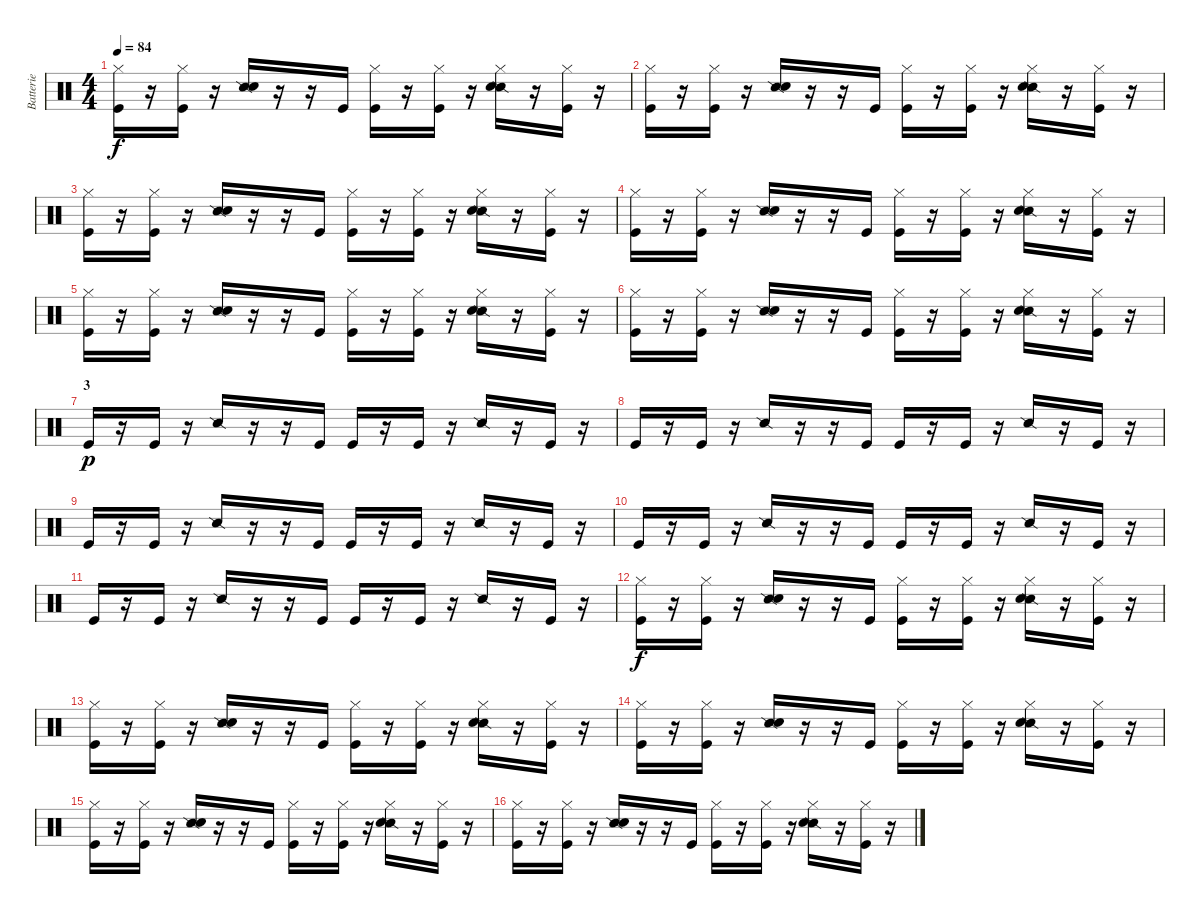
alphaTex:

\track ("Batterie" "Batterie") {instrument percussion}
\staff {score}
\articulation defaults
\ts (4 4)
\tempo 84
\clef neutral
\ks c
("Hi-Hat (closed)" "Kick (hit)").16{dy f} r.16 ("Hi-Hat (closed)" "Kick (hit)").16 r.16 ("Snare (side stick) 2" "Electric Snare (hit)").16 r.16 r.16 "Kick (hit)".16 ("Hi-Hat (closed)" "Kick (hit)").16 r.16 ("Hi-Hat (closed)" "Kick (hit)").16 r.16 ("Hi-Hat (closed)" "Snare (side stick) 2" "Electric Snare (hit)").16 r.16 ("Hi-Hat (closed)" "Kick (hit)").16 r.16 |
("Hi-Hat (closed)" "Kick (hit)").16 r.16 ("Hi-Hat (closed)" "Kick (hit)").16 r.16 ("Snare (side stick) 2" "Electric Snare (hit)").16 r.16 r.16 "Kick (hit)".16 ("Hi-Hat (closed)" "Kick (hit)").16 r.16 ("Hi-Hat (closed)" "Kick (hit)").16 r.16 ("Hi-Hat (closed)" "Snare (side stick) 2" "Electric Snare (hit)").16 r.16 ("Hi-Hat (closed)" "Kick (hit)").16 r.16 |
("Hi-Hat (closed)" "Kick (hit)").16 r.16 ("Hi-Hat (closed)" "Kick (hit)").16 r.16 ("Snare (side stick) 2" "Electric Snare (hit)").16 r.16 r.16 "Kick (hit)".16 ("Hi-Hat (closed)" "Kick (hit)").16 r.16 ("Hi-Hat (closed)" "Kick (hit)").16 r.16 ("Hi-Hat (closed)" "Snare (side stick) 2" "Electric Snare (hit)").16 r.16 ("Hi-Hat (closed)" "Kick (hit)").16 r.16 |
("Hi-Hat (closed)" "Kick (hit)").16 r.16 ("Hi-Hat (closed)" "Kick (hit)").16 r.16 ("Snare (side stick) 2" "Electric Snare (hit)").16 r.16 r.16 "Kick (hit)".16 ("Hi-Hat (closed)" "Kick (hit)").16 r.16 ("Hi-Hat (closed)" "Kick (hit)").16 r.16 ("Hi-Hat (closed)" "Snare (side stick) 2" "Electric Snare (hit)").16 r.16 ("Hi-Hat (closed)" "Kick (hit)").16 r.16 |
("Hi-Hat (closed)" "Kick (hit)").16 r.16 ("Hi-Hat (closed)" "Kick (hit)").16 r.16 ("Snare (side stick) 2" "Electric Snare (hit)").16 r.16 r.16 "Kick (hit)".16 ("Hi-Hat (closed)" "Kick (hit)").16 r.16 ("Hi-Hat (closed)" "Kick (hit)").16 r.16 ("Hi-Hat (closed)" "Snare (side stick) 2" "Electric Snare (hit)").16 r.16 ("Hi-Hat (closed)" "Kick (hit)").16 r.16 |
("Hi-Hat (closed)" "Kick (hit)").16 r.16 ("Hi-Hat (closed)" "Kick (hit)").16 r.16 ("Snare (side stick) 2" "Electric Snare (hit)").16 r.16 r.16 "Kick (hit)".16 ("Hi-Hat (closed)" "Kick (hit)").16 r.16 ("Hi-Hat (closed)" "Kick (hit)").16 r.16 ("Hi-Hat (closed)" "Snare (side stick) 2" "Electric Snare (hit)").16 r.16 ("Hi-Hat (closed)" "Kick (hit)").16 r.16 |
\section ("" "3")
"Kick (hit)".16{dy p} r.16 "Kick (hit)".16 r.16 "Snare (side stick) 2".16 r.16 r.16 "Kick (hit)".16 "Kick (hit)".16 r.16 "Kick (hit)".16 r.16 "Snare (side stick) 2".16 r.16 "Kick (hit)".16 r.16 |
"Kick (hit)".16 r.16 "Kick (hit)".16 r.16 "Snare (side stick) 2".16 r.16 r.16 "Kick (hit)".16 "Kick (hit)".16 r.16 "Kick (hit)".16 r.16 "Snare (side stick) 2".16 r.16 "Kick (hit)".16 r.16 |
"Kick (hit)".16 r.16 "Kick (hit)".16 r.16 "Snare (side stick) 2".16 r.16 r.16 "Kick (hit)".16 "Kick (hit)".16 r.16 "Kick (hit)".16 r.16 "Snare (side stick) 2".16 r.16 "Kick (hit)".16 r.16 |
"Kick (hit)".16 r.16 "Kick (hit)".16 r.16 "Snare (side stick) 2".16 r.16 r.16 "Kick (hit)".16 "Kick (hit)".16 r.16 "Kick (hit)".16 r.16 "Snare (side stick) 2".16 r.16 "Kick (hit)".16 r.16 |
"Kick (hit)".16 r.16 "Kick (hit)".16 r.16 "Snare (side stick) 2".16 r.16 r.16 "Kick (hit)".16 "Kick (hit)".16 r.16 "Kick (hit)".16 r.16 "Snare (side stick) 2".16 r.16 "Kick (hit)".16 r.16 |
("Hi-Hat (closed)" "Kick (hit)").16{dy f} r.16 ("Hi-Hat (closed)" "Kick (hit)").16 r.16 ("Snare (side stick) 2" "Electric Snare (hit)").16 r.16 r.16 "Kick (hit)".16 ("Hi-Hat (closed)" "Kick (hit)").16 r.16 ("Hi-Hat (closed)" "Kick (hit)").16 r.16 ("Hi-Hat (closed)" "Snare (side stick) 2" "Electric Snare (hit)").16 r.16 ("Hi-Hat (closed)" "Kick (hit)").16 r.16 |
("Hi-Hat (closed)" "Kick (hit)").16 r.16 ("Hi-Hat (closed)" "Kick (hit)").16 r.16 ("Snare (side stick) 2" "Electric Snare (hit)").16 r.16 r.16 "Kick (hit)".16 ("Hi-Hat (closed)" "Kick (hit)").16 r.16 ("Hi-Hat (closed)" "Kick (hit)").16 r.16 ("Hi-Hat (closed)" "Snare (side stick) 2" "Electric Snare (hit)").16 r.16 ("Hi-Hat (closed)" "Kick (hit)").16 r.16 |
("Hi-Hat (closed)" "Kick (hit)").16 r.16 ("Hi-Hat (closed)" "Kick (hit)").16 r.16 ("Snare (side stick) 2" "Electric Snare (hit)").16 r.16 r.16 "Kick (hit)".16 ("Hi-Hat (closed)" "Kick (hit)").16 r.16 ("Hi-Hat (closed)" "Kick (hit)").16 r.16 ("Hi-Hat (closed)" "Snare (side stick) 2" "Electric Snare (hit)").16 r.16 ("Hi-Hat (closed)" "Kick (hit)").16 r.16 |
("Hi-Hat (closed)" "Kick (hit)").16 r.16 ("Hi-Hat (closed)" "Kick (hit)").16 r.16 ("Snare (side stick) 2" "Electric Snare (hit)").16 r.16 r.16 "Kick (hit)".16 ("Hi-Hat (closed)" "Kick (hit)").16 r.16 ("Hi-Hat (closed)" "Kick (hit)").16 r.16 ("Hi-Hat (closed)" "Snare (side stick) 2" "Electric Snare (hit)").16 r.16 ("Hi-Hat (closed)" "Kick (hit)").16 r.16 |
("Hi-Hat (closed)" "Kick (hit)").16 r.16 ("Hi-Hat (closed)" "Kick (hit)").16 r.16 ("Snare (side stick) 2" "Electric Snare (hit)").16 r.16 r.16 "Kick (hit)".16 ("Hi-Hat (closed)" "Kick (hit)").16 r.16 ("Hi-Hat (closed)" "Kick (hit)").16 r.16 ("Hi-Hat (closed)" "Snare (side stick) 2" "Electric Snare (hit)").16 r.16 ("Hi-Hat (closed)" "Kick (hit)").16 r.16
